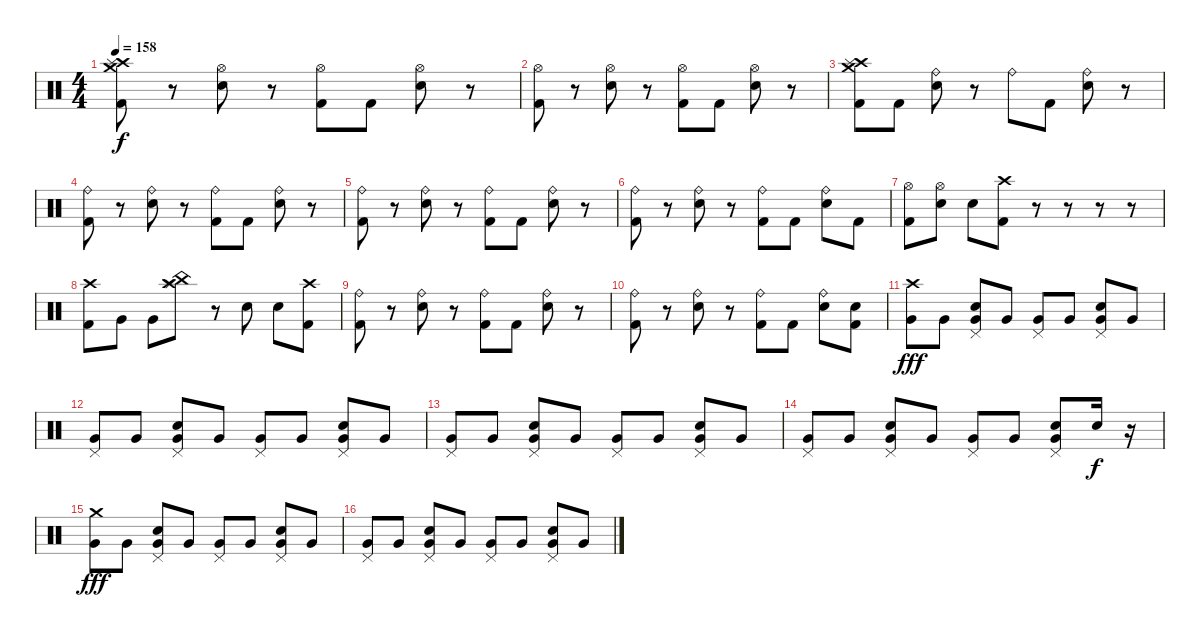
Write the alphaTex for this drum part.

\track "" {instrument percussion}
\staff {score}
\articulation defaults
\ts (4 4)
\tempo 158
\clef neutral
\ks c
("Crash high (hit)" "Splash (hit)" "Crash medium (hit)" "Kick (hit) 2").8{dy f} r.8 ("Hi-Hat (open)" "Electric Snare (hit)").8 r.8 ("Hi-Hat (open)" "Kick (hit) 2").8 "Kick (hit) 2".8 ("Hi-Hat (open)" "Electric Snare (hit)").8 r.8 |
("Hi-Hat (open)" "Kick (hit) 2").8 r.8 ("Hi-Hat (open)" "Electric Snare (hit)").8 r.8 ("Hi-Hat (open)" "Kick (hit) 2").8 "Kick (hit) 2".8 ("Hi-Hat (open)" "Electric Snare (hit)").8 r.8 |
("Crash high (hit)" "Splash (hit)" "Crash medium (hit)" "Kick (hit) 2").8 "Kick (hit) 2".8 ("Ride (bell)" "Electric Snare (hit)").8 r.8 "Ride (bell)".8 "Kick (hit) 2".8 ("Ride (bell)" "Electric Snare (hit)").8 r.8 |
("Ride (bell)" "Kick (hit) 2").8 r.8 ("Ride (bell)" "Electric Snare (hit)").8 r.8 ("Ride (bell)" "Kick (hit) 2").8 "Kick (hit) 2".8 ("Ride (bell)" "Electric Snare (hit)").8 r.8 |
("Ride (bell)" "Kick (hit) 2").8 r.8 ("Ride (bell)" "Electric Snare (hit)").8 r.8 ("Ride (bell)" "Kick (hit) 2").8 "Kick (hit) 2".8 ("Ride (bell)" "Electric Snare (hit)").8 r.8 |
("Ride (bell)" "Kick (hit) 2").8 r.8 ("Ride (bell)" "Electric Snare (hit)").8 r.8 ("Ride (bell)" "Kick (hit) 2").8 "Kick (hit) 2".8 ("Ride (bell)" "Electric Snare (hit)").8 "Kick (hit) 2".8 |
("Hi-Hat (open)" "Kick (hit) 2").8 ("Hi-Hat (open)" "Electric Snare (hit)").8 "Electric Snare (hit)".8 ("Crash high (hit)" "Kick (hit) 2").8 r.8 r.8 r.8 r.8 |
("Crash high (hit)" "Kick (hit) 2").8 "Very Low Tom (hit)".8 "Very Low Tom (hit)".8 ("Crash high (hit)" "Splash (hit)" "China (hit)").8 r.8 "Electric Snare (hit)".8 "Electric Snare (hit)".8 ("Crash high (hit)" "Kick (hit) 2").8 |
("Ride (bell)" "Kick (hit) 2").8 r.8 ("Ride (bell)" "Electric Snare (hit)").8 r.8 ("Ride (bell)" "Kick (hit) 2").8 "Kick (hit) 2".8 ("Ride (bell)" "Electric Snare (hit)").8 r.8 |
("Ride (bell)" "Kick (hit) 2").8 r.8 ("Ride (bell)" "Electric Snare (hit)").8 r.8 ("Ride (bell)" "Kick (hit) 2").8 "Kick (hit) 2".8 ("Ride (bell)" "Electric Snare (hit)").8 ("Electric Snare (hit)" "Kick (hit) 2").8 |
("Crash high (hit)" "Very Low Tom (hit)").8{dy fff} "Very Low Tom (hit)".8 ("Pedal Hi-Hat (hit)" "Electric Snare (hit)" "Very Low Tom (hit)").8 "Very Low Tom (hit)".8 ("Pedal Hi-Hat (hit)" "Very Low Tom (hit)").8 "Very Low Tom (hit)".8 ("Pedal Hi-Hat (hit)" "Electric Snare (hit)" "Very Low Tom (hit)").8 "Very Low Tom (hit)".8 |
("Pedal Hi-Hat (hit)" "Very Low Tom (hit)").8 "Very Low Tom (hit)".8 ("Pedal Hi-Hat (hit)" "Electric Snare (hit)" "Very Low Tom (hit)").8 "Very Low Tom (hit)".8 ("Pedal Hi-Hat (hit)" "Very Low Tom (hit)").8 "Very Low Tom (hit)".8 ("Pedal Hi-Hat (hit)" "Electric Snare (hit)" "Very Low Tom (hit)").8 "Very Low Tom (hit)".8 |
("Pedal Hi-Hat (hit)" "Very Low Tom (hit)").8 "Very Low Tom (hit)".8 ("Pedal Hi-Hat (hit)" "Electric Snare (hit)" "Very Low Tom (hit)").8 "Very Low Tom (hit)".8 ("Pedal Hi-Hat (hit)" "Very Low Tom (hit)").8 "Very Low Tom (hit)".8 ("Pedal Hi-Hat (hit)" "Electric Snare (hit)" "Very Low Tom (hit)").8 "Very Low Tom (hit)".8 |
("Pedal Hi-Hat (hit)" "Very Low Tom (hit)").8 "Very Low Tom (hit)".8 ("Pedal Hi-Hat (hit)" "Electric Snare (hit)" "Very Low Tom (hit)").8 "Very Low Tom (hit)".8 ("Pedal Hi-Hat (hit)" "Very Low Tom (hit)").8 "Very Low Tom (hit)".8 ("Pedal Hi-Hat (hit)" "Electric Snare (hit)" "Very Low Tom (hit)").8 "Electric Snare (hit)".16{dy f} r.16 |
("Crash medium (hit)" "Very Low Tom (hit)").8{dy fff} "Very Low Tom (hit)".8 ("Pedal Hi-Hat (hit)" "Electric Snare (hit)" "Very Low Tom (hit)").8 "Very Low Tom (hit)".8 ("Pedal Hi-Hat (hit)" "Very Low Tom (hit)").8 "Very Low Tom (hit)".8 ("Pedal Hi-Hat (hit)" "Electric Snare (hit)" "Very Low Tom (hit)").8 "Very Low Tom (hit)".8 |
("Pedal Hi-Hat (hit)" "Very Low Tom (hit)").8 "Very Low Tom (hit)".8 ("Pedal Hi-Hat (hit)" "Electric Snare (hit)" "Very Low Tom (hit)").8 "Very Low Tom (hit)".8 ("Pedal Hi-Hat (hit)" "Very Low Tom (hit)").8 "Very Low Tom (hit)".8 ("Pedal Hi-Hat (hit)" "Electric Snare (hit)" "Very Low Tom (hit)").8 "Very Low Tom (hit)".8
